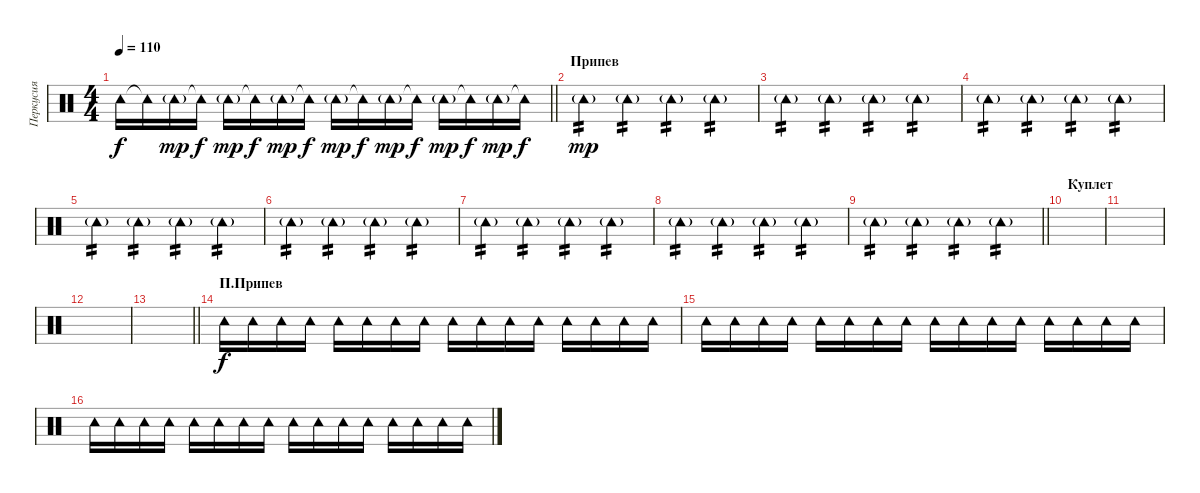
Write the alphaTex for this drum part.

\track ("Перкусия" "Перкусия") {instrument percussion}
\staff {score}
\articulation defaults
\ts (4 4)
\tempo 110
\clef neutral
\barLineRight lightlight
\ks c "Tambourine (hit)".16{dy f} "Tambourine (hit)"{t}.16 "Tambourine (hit)"{g}.16{dy mp} "Tambourine (hit)"{t}.16{dy f} "Tambourine (hit)"{g}.16{dy mp} "Tambourine (hit)"{t}.16{dy f} "Tambourine (hit)"{g}.16{dy mp} "Tambourine (hit)"{t}.16{dy f} "Tambourine (hit)"{g}.16{dy mp} "Tambourine (hit)"{t}.16{dy f} "Tambourine (hit)"{g}.16{dy mp} "Tambourine (hit)"{t}.16{dy f} "Tambourine (hit)"{g}.16{dy mp} "Tambourine (hit)"{t}.16{dy f} "Tambourine (hit)"{g}.16{dy mp} "Tambourine (hit)"{t}.16{dy f}
|
\section ("" "Припев")
"Tambourine (hit)"{g}.4{tp 2 dy mp} "Tambourine (hit)"{g}.4{tp 2} "Tambourine (hit)"{g}.4{tp 2} "Tambourine (hit)"{g}.4{tp 2} |
"Tambourine (hit)"{g}.4{tp 2} "Tambourine (hit)"{g}.4{tp 2} "Tambourine (hit)"{g}.4{tp 2} "Tambourine (hit)"{g}.4{tp 2} |
"Tambourine (hit)"{g}.4{tp 2} "Tambourine (hit)"{g}.4{tp 2} "Tambourine (hit)"{g}.4{tp 2} "Tambourine (hit)"{g}.4{tp 2} |
"Tambourine (hit)"{g}.4{tp 2} "Tambourine (hit)"{g}.4{tp 2} "Tambourine (hit)"{g}.4{tp 2} "Tambourine (hit)"{g}.4{tp 2} |
"Tambourine (hit)"{g}.4{tp 2} "Tambourine (hit)"{g}.4{tp 2} "Tambourine (hit)"{g}.4{tp 2} "Tambourine (hit)"{g}.4{tp 2} |
"Tambourine (hit)"{g}.4{tp 2} "Tambourine (hit)"{g}.4{tp 2} "Tambourine (hit)"{g}.4{tp 2} "Tambourine (hit)"{g}.4{tp 2} |
"Tambourine (hit)"{g}.4{tp 2} "Tambourine (hit)"{g}.4{tp 2} "Tambourine (hit)"{g}.4{tp 2} "Tambourine (hit)"{g}.4{tp 2} |
\barLineRight lightlight "Tambourine (hit)"{g}.4{tp 2} "Tambourine (hit)"{g}.4{tp 2} "Tambourine (hit)"{g}.4{tp 2} "Tambourine (hit)"{g}.4{tp 2}
|
\section ("" "Куплет")
|
|
|
\barLineRight lightlight
|
\section ("" "П.Припев")
"Tambourine (hit)".16{dy f} "Tambourine (hit)".16 "Tambourine (hit)".16 "Tambourine (hit)".16 "Tambourine (hit)".16 "Tambourine (hit)".16 "Tambourine (hit)".16 "Tambourine (hit)".16 "Tambourine (hit)".16 "Tambourine (hit)".16 "Tambourine (hit)".16 "Tambourine (hit)".16 "Tambourine (hit)".16 "Tambourine (hit)".16 "Tambourine (hit)".16 "Tambourine (hit)".16 |
"Tambourine (hit)".16 "Tambourine (hit)".16 "Tambourine (hit)".16 "Tambourine (hit)".16 "Tambourine (hit)".16 "Tambourine (hit)".16 "Tambourine (hit)".16 "Tambourine (hit)".16 "Tambourine (hit)".16 "Tambourine (hit)".16 "Tambourine (hit)".16 "Tambourine (hit)".16 "Tambourine (hit)".16 "Tambourine (hit)".16 "Tambourine (hit)".16 "Tambourine (hit)".16 |
"Tambourine (hit)".16 "Tambourine (hit)".16 "Tambourine (hit)".16 "Tambourine (hit)".16 "Tambourine (hit)".16 "Tambourine (hit)".16 "Tambourine (hit)".16 "Tambourine (hit)".16 "Tambourine (hit)".16 "Tambourine (hit)".16 "Tambourine (hit)".16 "Tambourine (hit)".16 "Tambourine (hit)".16 "Tambourine (hit)".16 "Tambourine (hit)".16 "Tambourine (hit)".16
